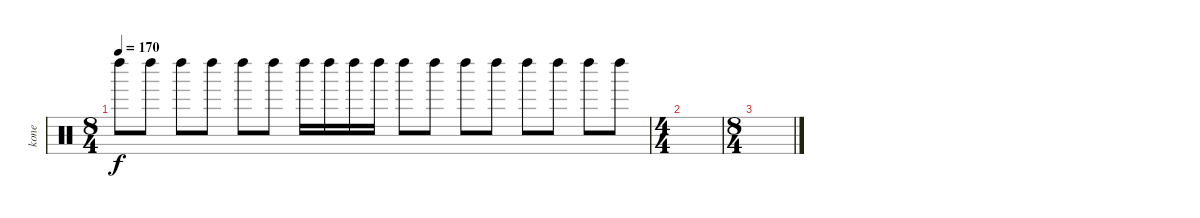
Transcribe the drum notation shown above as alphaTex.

\track ("kone" "kone") {instrument percussion}
\staff {score}
\articulation defaults
\ts (8 4)
\tempo 170
\clef neutral
\ks c "Left Maraca (hit)".8{dy f} "Left Maraca (hit)".8 "Left Maraca (hit)".8 "Left Maraca (hit)".8 "Left Maraca (hit)".8 "Left Maraca (hit)".8 "Left Maraca (hit)".16 "Left Maraca (hit)".16 "Left Maraca (hit)".16 "Left Maraca (hit)".16 "Left Maraca (hit)".8 "Left Maraca (hit)".8 "Left Maraca (hit)".8 "Left Maraca (hit)".8 "Left Maraca (hit)".8 "Left Maraca (hit)".8 "Left Maraca (hit)".8 "Left Maraca (hit)".8
|
\ts (4 4)
|
\ts (8 4)
